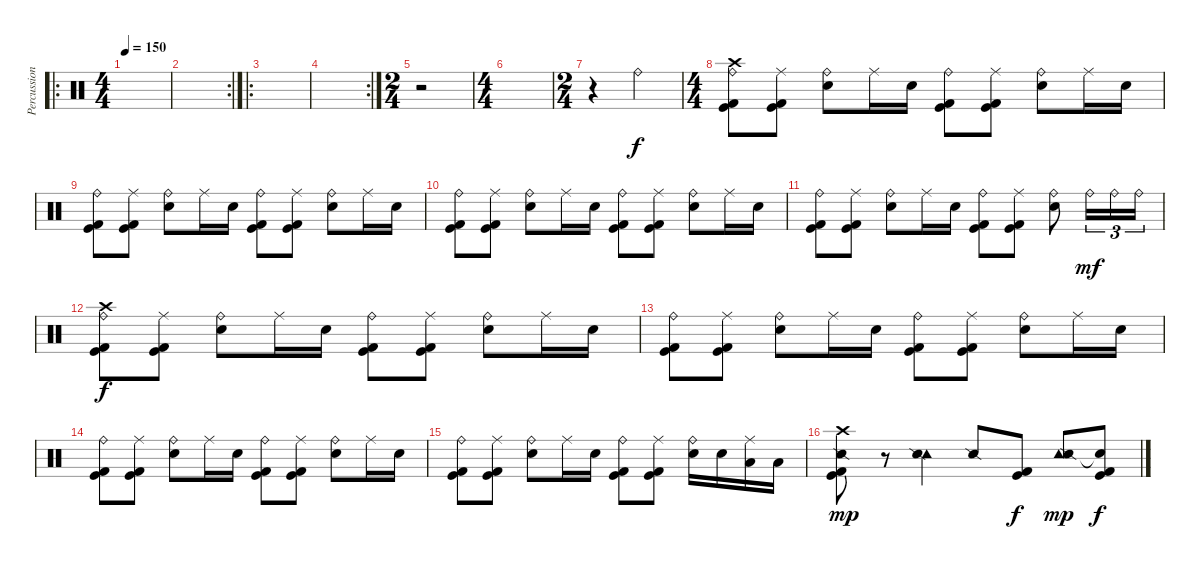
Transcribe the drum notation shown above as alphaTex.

\track ("Percussion" "Percussion") {instrument percussion}
\staff {score}
\articulation defaults
\ro
\ts (4 4)
\tempo 150
\clef neutral
\ks c
|
\rc 2
|
\ro
|
\rc 2
|
\ts (2 4)
r.2 |
\ts (4 4)
|
\ts (2 4)
r.4 "Ride (bell)".4 |
\ts (4 4)
("Crash high (hit)" "Ride (bell)" "Kick (hit) 2" "Kick (hit)").8 ("Ride (middle)" "Kick (hit) 2" "Kick (hit)").8 ("Ride (bell)" "Snare (hit) 2").8 "Ride (middle)".16 "Snare (hit) 2".16 ("Ride (bell)" "Kick (hit) 2" "Kick (hit)").8 ("Ride (middle)" "Kick (hit) 2" "Kick (hit)").8 ("Ride (bell)" "Snare (hit) 2").8 "Ride (middle)".16 "Snare (hit) 2".16 |
("Ride (bell)" "Kick (hit) 2" "Kick (hit)").8 ("Ride (middle)" "Kick (hit) 2" "Kick (hit)").8 ("Ride (bell)" "Snare (hit) 2").8 "Ride (middle)".16 "Snare (hit) 2".16 ("Ride (bell)" "Kick (hit) 2" "Kick (hit)").8 ("Ride (middle)" "Kick (hit) 2" "Kick (hit)").8 ("Ride (bell)" "Snare (hit) 2").8 "Ride (middle)".16 "Snare (hit) 2".16 |
("Ride (bell)" "Kick (hit) 2" "Kick (hit)").8 ("Ride (middle)" "Kick (hit) 2" "Kick (hit)").8 ("Ride (bell)" "Snare (hit) 2").8 "Ride (middle)".16 "Snare (hit) 2".16 ("Ride (bell)" "Kick (hit) 2" "Kick (hit)").8 ("Ride (middle)" "Kick (hit) 2" "Kick (hit)").8 ("Ride (bell)" "Snare (hit) 2").8 "Ride (middle)".16 "Snare (hit) 2".16 |
("Ride (bell)" "Kick (hit) 2" "Kick (hit)").8 ("Ride (middle)" "Kick (hit) 2" "Kick (hit)").8 ("Ride (bell)" "Snare (hit) 2").8 "Ride (middle)".16 "Snare (hit) 2".16 ("Ride (bell)" "Kick (hit) 2" "Kick (hit)").8 ("Ride (middle)" "Kick (hit) 2" "Kick (hit)").8 ("Ride (bell)" "Snare (hit) 2").8 "Ride (bell)".16{tu (3 2) dy mf} "Ride (bell)".16{tu (3 2)} "Ride (bell)".16{tu (3 2)} |
("Crash high (hit)" "Ride (bell)" "Kick (hit) 2" "Kick (hit)").8{dy f} ("Ride (middle)" "Kick (hit) 2" "Kick (hit)").8 ("Ride (bell)" "Snare (hit) 2").8 "Ride (middle)".16 "Snare (hit) 2".16 ("Ride (bell)" "Kick (hit) 2" "Kick (hit)").8 ("Ride (middle)" "Kick (hit) 2" "Kick (hit)").8 ("Ride (bell)" "Snare (hit) 2").8 "Ride (middle)".16 "Snare (hit) 2".16 |
("Ride (bell)" "Kick (hit) 2" "Kick (hit)").8 ("Ride (middle)" "Kick (hit) 2" "Kick (hit)").8 ("Ride (bell)" "Snare (hit) 2").8 "Ride (middle)".16 "Snare (hit) 2".16 ("Ride (bell)" "Kick (hit) 2" "Kick (hit)").8 ("Ride (middle)" "Kick (hit) 2" "Kick (hit)").8 ("Ride (bell)" "Snare (hit) 2").8 "Ride (middle)".16 "Snare (hit) 2".16 |
("Ride (bell)" "Kick (hit) 2" "Kick (hit)").8 ("Ride (middle)" "Kick (hit) 2" "Kick (hit)").8 ("Ride (bell)" "Snare (hit) 2").8 "Ride (middle)".16 "Snare (hit) 2".16 ("Ride (bell)" "Kick (hit) 2" "Kick (hit)").8 ("Ride (middle)" "Kick (hit) 2" "Kick (hit)").8 ("Ride (bell)" "Snare (hit) 2").8 "Ride (middle)".16 "Snare (hit) 2".16 |
("Ride (bell)" "Kick (hit) 2" "Kick (hit)").8 ("Ride (middle)" "Kick (hit) 2" "Kick (hit)").8 ("Ride (bell)" "Snare (hit) 2").8 "Ride (middle)".16 "Snare (hit) 2".16 ("Ride (bell)" "Kick (hit) 2" "Kick (hit)").8 ("Ride (middle)" "Kick (hit) 2" "Kick (hit)").8 ("Ride (bell)" "Snare (hit) 2").16 "Snare (hit) 2".16 ("Ride (middle)" "Low Tom (hit)").16 "Low Tom (hit)".16 |
("Crash high (hit)" "Snare (side stick) 2" "Kick (hit)" "Kick (hit) 2").8{dy mp} r.8{volume 16} ("Tambourine (hit)" "Snare (side stick) 2").4 "Snare (side stick) 2".8 ("Kick (hit)" "Kick (hit) 2").8{dy f} ("Tambourine (hit)" "Snare (side stick) 2").8{dy mp} ("Snare (hit)"{t} "Kick (hit)" "Kick (hit) 2").8{dy f}
